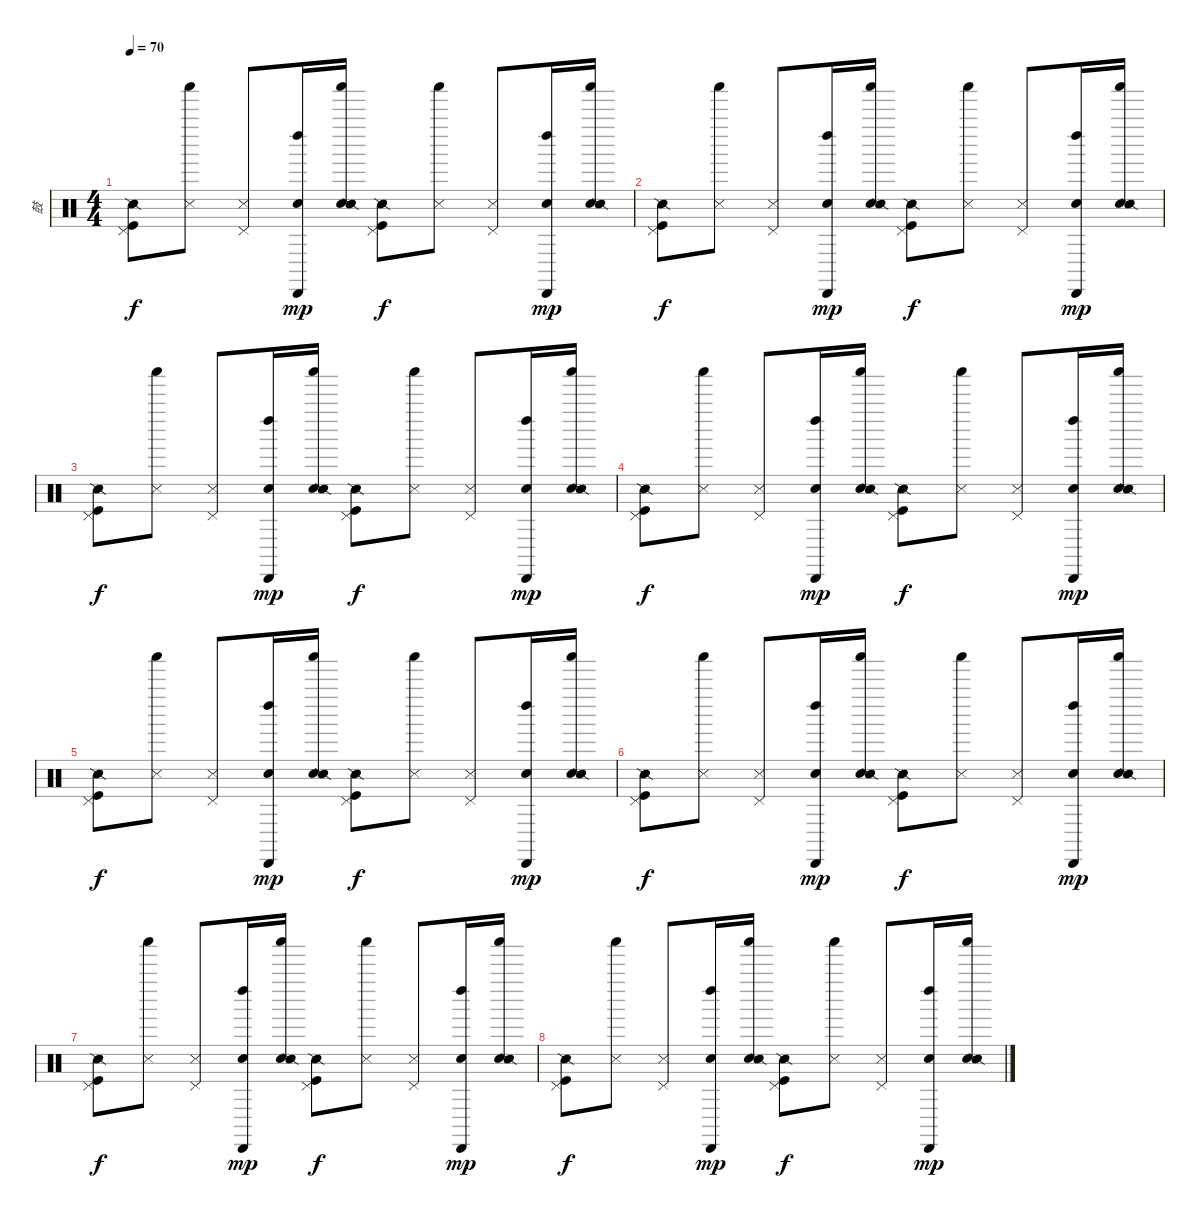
\track ("鼓" "鼓") {instrument percussion}
\staff {score}
\articulation defaults
\ts (4 4)
\tempo 70
\clef neutral
\ks c
("Kick (hit)" "Snare (side stick) 2" "Pedal Hi-Hat (hit)").8{dy f} ("Snare (side stick) 3" "Shaker (hit)").8 ("Snare (side stick) 3" "Pedal Hi-Hat (hit)").8 ("Hand Clap (hit)" "Left Maraca (hit)" "Cabasa (hit)").16{dy mp} ("Hand Clap (hit)" "Snare (side stick) 2" "Shaker (hit)").16 ("Kick (hit)" "Snare (side stick) 2" "Pedal Hi-Hat (hit)").8{dy f} ("Snare (side stick) 3" "Shaker (hit)").8 ("Snare (side stick) 3" "Pedal Hi-Hat (hit)").8 ("Hand Clap (hit)" "Left Maraca (hit)" "Cabasa (hit)").16{dy mp} ("Hand Clap (hit)" "Snare (side stick) 2" "Shaker (hit)").16 |
("Kick (hit)" "Snare (side stick) 2" "Pedal Hi-Hat (hit)").8{dy f} ("Snare (side stick) 3" "Shaker (hit)").8 ("Snare (side stick) 3" "Pedal Hi-Hat (hit)").8 ("Hand Clap (hit)" "Left Maraca (hit)" "Cabasa (hit)").16{dy mp} ("Hand Clap (hit)" "Snare (side stick) 2" "Shaker (hit)").16 ("Kick (hit)" "Snare (side stick) 2" "Pedal Hi-Hat (hit)").8{dy f} ("Snare (side stick) 3" "Shaker (hit)").8 ("Snare (side stick) 3" "Pedal Hi-Hat (hit)").8 ("Hand Clap (hit)" "Left Maraca (hit)" "Cabasa (hit)").16{dy mp} ("Hand Clap (hit)" "Snare (side stick) 2" "Shaker (hit)").16 |
("Kick (hit)" "Snare (side stick) 2" "Pedal Hi-Hat (hit)").8{dy f} ("Snare (side stick) 3" "Shaker (hit)").8 ("Snare (side stick) 3" "Pedal Hi-Hat (hit)").8 ("Hand Clap (hit)" "Left Maraca (hit)" "Cabasa (hit)").16{dy mp} ("Hand Clap (hit)" "Snare (side stick) 2" "Shaker (hit)").16 ("Kick (hit)" "Snare (side stick) 2" "Pedal Hi-Hat (hit)").8{dy f} ("Snare (side stick) 3" "Shaker (hit)").8 ("Snare (side stick) 3" "Pedal Hi-Hat (hit)").8 ("Hand Clap (hit)" "Left Maraca (hit)" "Cabasa (hit)").16{dy mp} ("Hand Clap (hit)" "Snare (side stick) 2" "Shaker (hit)").16 |
("Kick (hit)" "Snare (side stick) 2" "Pedal Hi-Hat (hit)").8{dy f} ("Snare (side stick) 3" "Shaker (hit)").8 ("Snare (side stick) 3" "Pedal Hi-Hat (hit)").8 ("Hand Clap (hit)" "Left Maraca (hit)" "Cabasa (hit)").16{dy mp} ("Hand Clap (hit)" "Snare (side stick) 2" "Shaker (hit)").16 ("Kick (hit)" "Snare (side stick) 2" "Pedal Hi-Hat (hit)").8{dy f} ("Snare (side stick) 3" "Shaker (hit)").8 ("Snare (side stick) 3" "Pedal Hi-Hat (hit)").8 ("Hand Clap (hit)" "Left Maraca (hit)" "Cabasa (hit)").16{dy mp} ("Hand Clap (hit)" "Snare (side stick) 2" "Shaker (hit)").16 |
("Kick (hit)" "Snare (side stick) 2" "Pedal Hi-Hat (hit)").8{dy f} ("Snare (side stick) 3" "Shaker (hit)").8 ("Snare (side stick) 3" "Pedal Hi-Hat (hit)").8 ("Hand Clap (hit)" "Left Maraca (hit)" "Cabasa (hit)").16{dy mp} ("Hand Clap (hit)" "Snare (side stick) 2" "Shaker (hit)").16 ("Kick (hit)" "Snare (side stick) 2" "Pedal Hi-Hat (hit)").8{dy f} ("Snare (side stick) 3" "Shaker (hit)").8 ("Snare (side stick) 3" "Pedal Hi-Hat (hit)").8 ("Hand Clap (hit)" "Left Maraca (hit)" "Cabasa (hit)").16{dy mp} ("Hand Clap (hit)" "Snare (side stick) 2" "Shaker (hit)").16 |
("Kick (hit)" "Snare (side stick) 2" "Pedal Hi-Hat (hit)").8{dy f} ("Snare (side stick) 3" "Shaker (hit)").8 ("Snare (side stick) 3" "Pedal Hi-Hat (hit)").8 ("Hand Clap (hit)" "Left Maraca (hit)" "Cabasa (hit)").16{dy mp} ("Hand Clap (hit)" "Snare (side stick) 2" "Shaker (hit)").16 ("Kick (hit)" "Snare (side stick) 2" "Pedal Hi-Hat (hit)").8{dy f} ("Snare (side stick) 3" "Shaker (hit)").8 ("Snare (side stick) 3" "Pedal Hi-Hat (hit)").8 ("Hand Clap (hit)" "Left Maraca (hit)" "Cabasa (hit)").16{dy mp} ("Hand Clap (hit)" "Snare (side stick) 2" "Shaker (hit)").16 |
("Kick (hit)" "Snare (side stick) 2" "Pedal Hi-Hat (hit)").8{dy f} ("Snare (side stick) 3" "Shaker (hit)").8 ("Snare (side stick) 3" "Pedal Hi-Hat (hit)").8 ("Hand Clap (hit)" "Left Maraca (hit)" "Cabasa (hit)").16{dy mp} ("Hand Clap (hit)" "Snare (side stick) 2" "Shaker (hit)").16 ("Kick (hit)" "Snare (side stick) 2" "Pedal Hi-Hat (hit)").8{dy f} ("Snare (side stick) 3" "Shaker (hit)").8 ("Snare (side stick) 3" "Pedal Hi-Hat (hit)").8 ("Hand Clap (hit)" "Left Maraca (hit)" "Cabasa (hit)").16{dy mp} ("Hand Clap (hit)" "Snare (side stick) 2" "Shaker (hit)").16 |
("Kick (hit)" "Snare (side stick) 2" "Pedal Hi-Hat (hit)").8{dy f} ("Snare (side stick) 3" "Shaker (hit)").8 ("Snare (side stick) 3" "Pedal Hi-Hat (hit)").8 ("Hand Clap (hit)" "Left Maraca (hit)" "Cabasa (hit)").16{dy mp} ("Hand Clap (hit)" "Snare (side stick) 2" "Shaker (hit)").16 ("Kick (hit)" "Snare (side stick) 2" "Pedal Hi-Hat (hit)").8{dy f} ("Snare (side stick) 3" "Shaker (hit)").8 ("Snare (side stick) 3" "Pedal Hi-Hat (hit)").8 ("Hand Clap (hit)" "Left Maraca (hit)" "Cabasa (hit)").16{dy mp} ("Hand Clap (hit)" "Snare (side stick) 2" "Shaker (hit)").16
